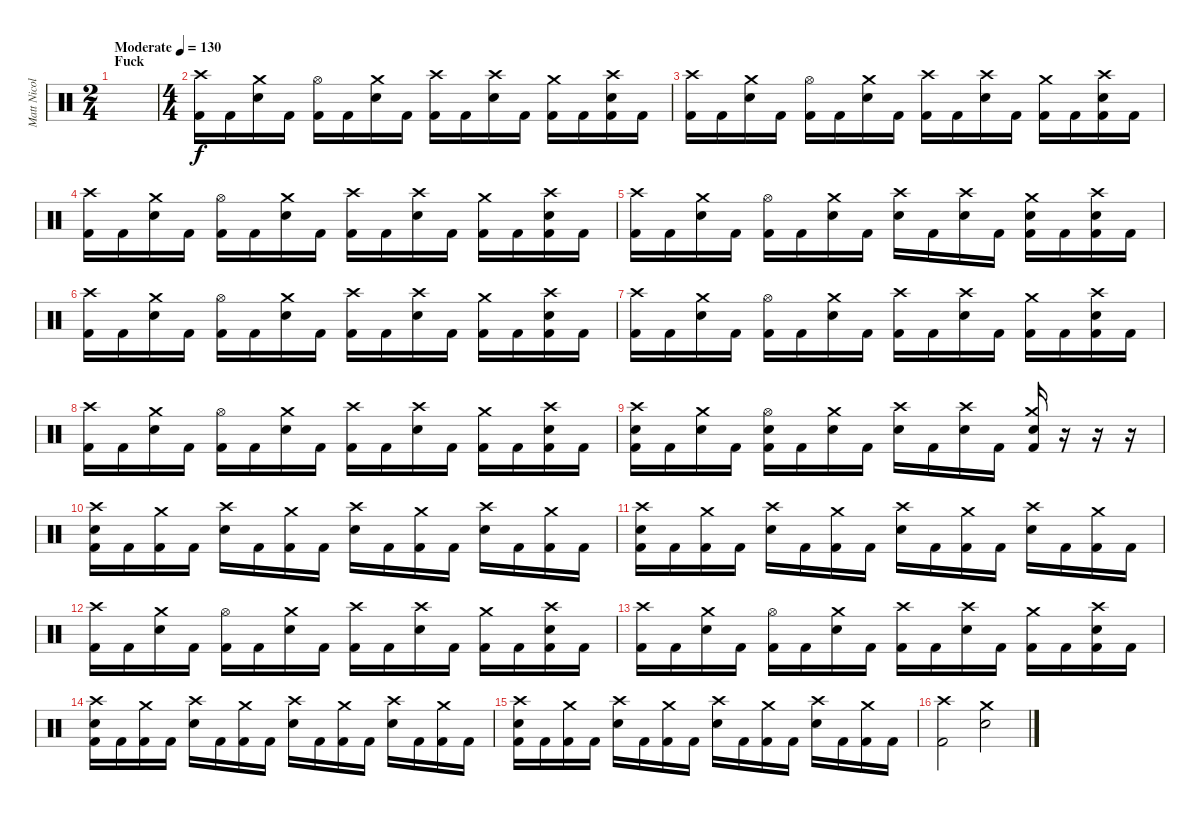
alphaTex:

\track ("Matt Nicols" "Matt Nicol") {instrument percussion}
\staff {score}
\articulation defaults
\ts (2 4)
\section ("" "Fuck")
\tempo (130 "Moderate")
\clef neutral
\ks c
|
\ts (4 4)
("Crash high (hit)" "Kick (hit) 2").16 "Kick (hit) 2".16 ("Crash medium (hit)" "Snare (hit) 2").16 "Kick (hit) 2".16 ("Hi-Hat (open)" "Kick (hit) 2").16 "Kick (hit) 2".16 ("Crash medium (hit)" "Snare (hit) 2").16 "Kick (hit) 2".16 ("Crash high (hit)" "Kick (hit) 2").16 "Kick (hit) 2".16 ("Crash high (hit)" "Snare (hit) 2").16 "Kick (hit) 2".16 ("Crash medium (hit)" "Kick (hit) 2").16 "Kick (hit) 2".16 ("Crash high (hit)" "Snare (hit) 2" "Kick (hit) 2").16 "Kick (hit) 2".16 |
("Crash high (hit)" "Kick (hit) 2").16 "Kick (hit) 2".16 ("Crash medium (hit)" "Snare (hit) 2").16 "Kick (hit) 2".16 ("Hi-Hat (open)" "Kick (hit) 2").16 "Kick (hit) 2".16 ("Crash medium (hit)" "Snare (hit) 2").16 "Kick (hit) 2".16 ("Crash high (hit)" "Kick (hit) 2").16 "Kick (hit) 2".16 ("Crash high (hit)" "Snare (hit) 2").16 "Kick (hit) 2".16 ("Crash medium (hit)" "Kick (hit) 2").16 "Kick (hit) 2".16 ("Crash high (hit)" "Snare (hit) 2" "Kick (hit) 2").16 "Kick (hit) 2".16 |
("Crash high (hit)" "Kick (hit) 2").16 "Kick (hit) 2".16 ("Crash medium (hit)" "Snare (hit) 2").16 "Kick (hit) 2".16 ("Hi-Hat (open)" "Kick (hit) 2").16 "Kick (hit) 2".16 ("Crash medium (hit)" "Snare (hit) 2").16 "Kick (hit) 2".16 ("Crash high (hit)" "Kick (hit) 2").16 "Kick (hit) 2".16 ("Crash high (hit)" "Snare (hit) 2").16 "Kick (hit) 2".16 ("Crash medium (hit)" "Kick (hit) 2").16 "Kick (hit) 2".16 ("Crash high (hit)" "Snare (hit) 2" "Kick (hit) 2").16 "Kick (hit) 2".16 |
("Crash high (hit)" "Kick (hit) 2").16 "Kick (hit) 2".16 ("Crash medium (hit)" "Snare (hit) 2").16 "Kick (hit) 2".16 ("Hi-Hat (open)" "Kick (hit) 2").16 "Kick (hit) 2".16 ("Crash medium (hit)" "Snare (hit) 2").16 "Kick (hit) 2".16 ("Crash high (hit)" "Snare (hit) 2").16 "Kick (hit) 2".16 ("Crash high (hit)" "Snare (hit) 2").16 "Kick (hit) 2".16 ("Crash medium (hit)" "Snare (hit) 2" "Kick (hit) 2").16 "Kick (hit) 2".16 ("Crash high (hit)" "Snare (hit) 2" "Kick (hit) 2").16 "Kick (hit) 2".16 |
("Crash high (hit)" "Kick (hit) 2").16 "Kick (hit) 2".16 ("Crash medium (hit)" "Snare (hit) 2").16 "Kick (hit) 2".16 ("Hi-Hat (open)" "Kick (hit) 2").16 "Kick (hit) 2".16 ("Crash medium (hit)" "Snare (hit) 2").16 "Kick (hit) 2".16 ("Crash high (hit)" "Kick (hit) 2").16 "Kick (hit) 2".16 ("Crash high (hit)" "Snare (hit) 2").16 "Kick (hit) 2".16 ("Crash medium (hit)" "Kick (hit) 2").16 "Kick (hit) 2".16 ("Crash high (hit)" "Snare (hit) 2" "Kick (hit) 2").16 "Kick (hit) 2".16 |
("Crash high (hit)" "Kick (hit) 2").16 "Kick (hit) 2".16 ("Crash medium (hit)" "Snare (hit) 2").16 "Kick (hit) 2".16 ("Hi-Hat (open)" "Kick (hit) 2").16 "Kick (hit) 2".16 ("Crash medium (hit)" "Snare (hit) 2").16 "Kick (hit) 2".16 ("Crash high (hit)" "Kick (hit) 2").16 "Kick (hit) 2".16 ("Crash high (hit)" "Snare (hit) 2").16 "Kick (hit) 2".16 ("Crash medium (hit)" "Kick (hit) 2").16 "Kick (hit) 2".16 ("Crash high (hit)" "Snare (hit) 2" "Kick (hit) 2").16 "Kick (hit) 2".16 |
("Crash high (hit)" "Kick (hit) 2").16 "Kick (hit) 2".16 ("Crash medium (hit)" "Snare (hit) 2").16 "Kick (hit) 2".16 ("Hi-Hat (open)" "Kick (hit) 2").16 "Kick (hit) 2".16 ("Crash medium (hit)" "Snare (hit) 2").16 "Kick (hit) 2".16 ("Crash high (hit)" "Kick (hit) 2").16 "Kick (hit) 2".16 ("Crash high (hit)" "Snare (hit) 2").16 "Kick (hit) 2".16 ("Crash medium (hit)" "Kick (hit) 2").16 "Kick (hit) 2".16 ("Crash high (hit)" "Snare (hit) 2" "Kick (hit) 2").16 "Kick (hit) 2".16 |
("Crash high (hit)" "Snare (hit) 2" "Kick (hit) 2").16 "Kick (hit) 2".16 ("Crash medium (hit)" "Snare (hit) 2").16 "Kick (hit) 2".16 ("Hi-Hat (open)" "Snare (hit) 2" "Kick (hit) 2").16 "Kick (hit) 2".16 ("Crash medium (hit)" "Snare (hit) 2").16 "Kick (hit) 2".16 ("Crash high (hit)" "Snare (hit) 2").16 "Kick (hit) 2".16 ("Crash high (hit)" "Snare (hit) 2").16 "Kick (hit) 2".16 ("Crash medium (hit)" "Snare (hit) 2" "Kick (hit) 2").16 r.16 r.16 r.16 |
("Snare (hit) 2" "Kick (hit) 2" "Crash high (hit)").16 "Kick (hit) 2".16 ("Kick (hit) 2" "Crash medium (hit)").16 "Kick (hit) 2".16 ("Snare (hit) 2" "Crash high (hit)").16 "Kick (hit) 2".16 ("Kick (hit) 2" "Crash medium (hit)").16 "Kick (hit) 2".16 ("Snare (hit) 2" "Crash high (hit)").16 "Kick (hit) 2".16 ("Kick (hit) 2" "Crash medium (hit)").16 "Kick (hit) 2".16 ("Snare (hit) 2" "Crash high (hit)").16 "Kick (hit) 2".16 ("Kick (hit) 2" "Crash medium (hit)").16 "Kick (hit) 2".16 |
("Snare (hit) 2" "Kick (hit) 2" "Crash high (hit)").16 "Kick (hit) 2".16 ("Kick (hit) 2" "Crash medium (hit)").16 "Kick (hit) 2".16 ("Snare (hit) 2" "Crash high (hit)").16 "Kick (hit) 2".16 ("Kick (hit) 2" "Crash medium (hit)").16 "Kick (hit) 2".16 ("Snare (hit) 2" "Crash high (hit)").16 "Kick (hit) 2".16 ("Kick (hit) 2" "Crash medium (hit)").16 "Kick (hit) 2".16 ("Snare (hit) 2" "Crash high (hit)").16 "Kick (hit) 2".16 ("Kick (hit) 2" "Crash medium (hit)").16 "Kick (hit) 2".16 |
("Crash high (hit)" "Kick (hit) 2").16 "Kick (hit) 2".16 ("Crash medium (hit)" "Snare (hit) 2").16 "Kick (hit) 2".16 ("Hi-Hat (open)" "Kick (hit) 2").16 "Kick (hit) 2".16 ("Crash medium (hit)" "Snare (hit) 2").16 "Kick (hit) 2".16 ("Crash high (hit)" "Kick (hit) 2").16 "Kick (hit) 2".16 ("Crash high (hit)" "Snare (hit) 2").16 "Kick (hit) 2".16 ("Crash medium (hit)" "Kick (hit) 2").16 "Kick (hit) 2".16 ("Crash high (hit)" "Snare (hit) 2" "Kick (hit) 2").16 "Kick (hit) 2".16 |
("Crash high (hit)" "Kick (hit) 2").16 "Kick (hit) 2".16 ("Crash medium (hit)" "Snare (hit) 2").16 "Kick (hit) 2".16 ("Hi-Hat (open)" "Kick (hit) 2").16 "Kick (hit) 2".16 ("Crash medium (hit)" "Snare (hit) 2").16 "Kick (hit) 2".16 ("Crash high (hit)" "Kick (hit) 2").16 "Kick (hit) 2".16 ("Crash high (hit)" "Snare (hit) 2").16 "Kick (hit) 2".16 ("Crash medium (hit)" "Kick (hit) 2").16 "Kick (hit) 2".16 ("Crash high (hit)" "Snare (hit) 2" "Kick (hit) 2").16 "Kick (hit) 2".16 |
("Snare (hit) 2" "Kick (hit) 2" "Crash high (hit)").16 "Kick (hit) 2".16 ("Kick (hit) 2" "Crash medium (hit)").16 "Kick (hit) 2".16 ("Snare (hit) 2" "Crash high (hit)").16 "Kick (hit) 2".16 ("Kick (hit) 2" "Crash medium (hit)").16 "Kick (hit) 2".16 ("Snare (hit) 2" "Crash high (hit)").16 "Kick (hit) 2".16 ("Kick (hit) 2" "Crash medium (hit)").16 "Kick (hit) 2".16 ("Snare (hit) 2" "Crash high (hit)").16 "Kick (hit) 2".16 ("Kick (hit) 2" "Crash medium (hit)").16 "Kick (hit) 2".16 |
("Snare (hit) 2" "Kick (hit) 2" "Crash high (hit)").16 "Kick (hit) 2".16 ("Kick (hit) 2" "Crash medium (hit)").16 "Kick (hit) 2".16 ("Snare (hit) 2" "Crash high (hit)").16 "Kick (hit) 2".16 ("Kick (hit) 2" "Crash medium (hit)").16 "Kick (hit) 2".16 ("Snare (hit) 2" "Crash high (hit)").16 "Kick (hit) 2".16 ("Kick (hit) 2" "Crash medium (hit)").16 "Kick (hit) 2".16 ("Snare (hit) 2" "Crash high (hit)").16 "Kick (hit) 2".16 ("Kick (hit) 2" "Crash medium (hit)").16 "Kick (hit) 2".16 |
("Kick (hit) 2" "Crash high (hit)").2 ("Snare (hit) 2" "Crash medium (hit)").2
